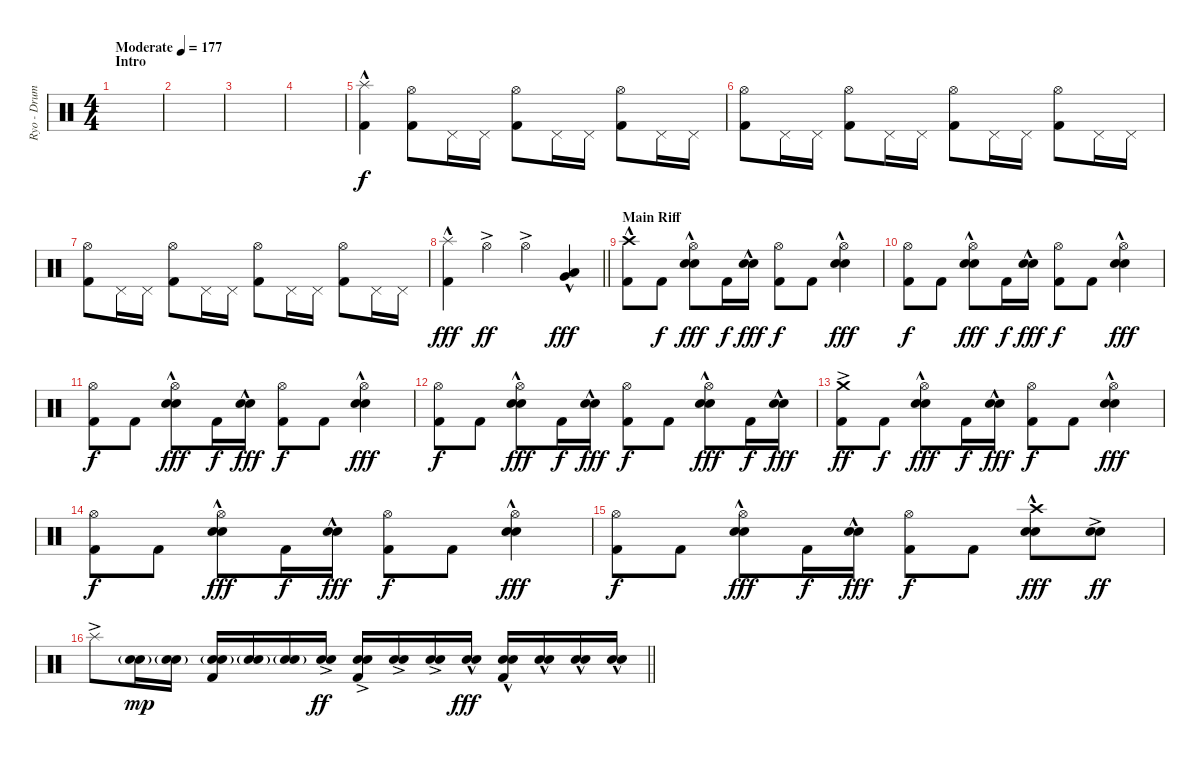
\track ("Ryo - Drums" "Ryo - Drum") {instrument percussion}
\staff {score}
\articulation defaults
\ts (4 4)
\section ("" "Intro")
\tempo (177 "Moderate")
\clef neutral
\ks c
|
|
|
|
("Splash (hit)"{hac} "Kick (hit) 2").4 ("Hi-Hat (open)" "Kick (hit) 2").8{dy f} "Pedal Hi-Hat (hit)".16 "Pedal Hi-Hat (hit)".16 ("Hi-Hat (open)" "Kick (hit) 2").8 "Pedal Hi-Hat (hit)".16 "Pedal Hi-Hat (hit)".16 ("Hi-Hat (open)" "Kick (hit) 2").8 "Pedal Hi-Hat (hit)".16 "Pedal Hi-Hat (hit)".16 |
("Hi-Hat (open)" "Kick (hit) 2").8 "Pedal Hi-Hat (hit)".16 "Pedal Hi-Hat (hit)".16 ("Hi-Hat (open)" "Kick (hit) 2").8 "Pedal Hi-Hat (hit)".16 "Pedal Hi-Hat (hit)".16 ("Hi-Hat (open)" "Kick (hit) 2").8 "Pedal Hi-Hat (hit)".16 "Pedal Hi-Hat (hit)".16 ("Hi-Hat (open)" "Kick (hit) 2").8 "Pedal Hi-Hat (hit)".16 "Pedal Hi-Hat (hit)".16 |
("Hi-Hat (open)" "Kick (hit) 2").8 "Pedal Hi-Hat (hit)".16 "Pedal Hi-Hat (hit)".16 ("Hi-Hat (open)" "Kick (hit) 2").8 "Pedal Hi-Hat (hit)".16 "Pedal Hi-Hat (hit)".16 ("Hi-Hat (open)" "Kick (hit) 2").8 "Pedal Hi-Hat (hit)".16 "Pedal Hi-Hat (hit)".16 ("Hi-Hat (open)" "Kick (hit) 2").8 "Pedal Hi-Hat (hit)".16 "Pedal Hi-Hat (hit)".16 |
\barLineRight lightlight
("Splash (hit)"{hac} "Kick (hit) 2").4{dy fff} "Hi-Hat (open)"{ac}.4{dy ff} "Hi-Hat (open)"{ac}.4 ("Low Tom (hit)"{hac} "Very Low Tom (hit)"{hac}).4{dy fff} |
\section ("" "Main Riff")
("Crash high (hit)"{hac} "Kick (hit) 2").8 "Kick (hit) 2".8{dy f} ("Hi-Hat (open)" "Electric Snare (hit)"{hac} "Snare (hit) 2"{hac}).8{dy fff} "Kick (hit) 2".16{dy f} ("Electric Snare (hit)"{hac} "Snare (hit) 2"{hac}).16{dy fff} ("Hi-Hat (open)" "Kick (hit) 2").8{dy f} "Kick (hit) 2".8 ("Hi-Hat (open)" "Electric Snare (hit)"{hac} "Snare (hit) 2"{hac}).4{dy fff} |
("Hi-Hat (open)" "Kick (hit) 2").8{dy f} "Kick (hit) 2".8 ("Hi-Hat (open)" "Electric Snare (hit)"{hac} "Snare (hit) 2"{hac}).8{dy fff} "Kick (hit) 2".16{dy f} ("Electric Snare (hit)"{hac} "Snare (hit) 2"{hac}).16{dy fff} ("Hi-Hat (open)" "Kick (hit) 2").8{dy f} "Kick (hit) 2".8 ("Hi-Hat (open)" "Electric Snare (hit)"{hac} "Snare (hit) 2"{hac}).4{dy fff} |
("Hi-Hat (open)" "Kick (hit) 2").8{dy f} "Kick (hit) 2".8 ("Hi-Hat (open)" "Electric Snare (hit)"{hac} "Snare (hit) 2"{hac}).8{dy fff} "Kick (hit) 2".16{dy f} ("Electric Snare (hit)"{hac} "Snare (hit) 2"{hac}).16{dy fff} ("Hi-Hat (open)" "Kick (hit) 2").8{dy f} "Kick (hit) 2".8 ("Hi-Hat (open)" "Electric Snare (hit)"{hac} "Snare (hit) 2"{hac}).4{dy fff} |
("Hi-Hat (open)" "Kick (hit) 2").8{dy f} "Kick (hit) 2".8 ("Hi-Hat (open)" "Electric Snare (hit)"{hac} "Snare (hit) 2"{hac}).8{dy fff} "Kick (hit) 2".16{dy f} ("Electric Snare (hit)"{hac} "Snare (hit) 2"{hac}).16{dy fff} ("Hi-Hat (open)" "Kick (hit) 2").8{dy f} "Kick (hit) 2".8 ("Hi-Hat (open)" "Electric Snare (hit)"{hac} "Snare (hit) 2"{hac}).8{dy fff} "Kick (hit) 2".16{dy f} ("Electric Snare (hit)"{hac} "Snare (hit) 2"{hac}).16{dy fff} |
("Crash medium (hit)"{ac} "Kick (hit) 2").8{dy ff} "Kick (hit) 2".8{dy f} ("Hi-Hat (open)" "Electric Snare (hit)"{hac} "Snare (hit) 2"{hac}).8{dy fff} "Kick (hit) 2".16{dy f} ("Electric Snare (hit)"{hac} "Snare (hit) 2"{hac}).16{dy fff} ("Hi-Hat (open)" "Kick (hit) 2").8{dy f} "Kick (hit) 2".8 ("Hi-Hat (open)" "Electric Snare (hit)"{hac} "Snare (hit) 2"{hac}).4{dy fff} |
("Hi-Hat (open)" "Kick (hit) 2").8{dy f} "Kick (hit) 2".8 ("Hi-Hat (open)" "Electric Snare (hit)"{hac} "Snare (hit) 2"{hac}).8{dy fff} "Kick (hit) 2".16{dy f} ("Electric Snare (hit)"{hac} "Snare (hit) 2"{hac}).16{dy fff} ("Hi-Hat (open)" "Kick (hit) 2").8{dy f} "Kick (hit) 2".8 ("Hi-Hat (open)" "Electric Snare (hit)"{hac} "Snare (hit) 2"{hac}).4{dy fff} |
("Hi-Hat (open)" "Kick (hit) 2").8{dy f} "Kick (hit) 2".8 ("Hi-Hat (open)" "Electric Snare (hit)"{hac} "Snare (hit) 2"{hac}).8{dy fff} "Kick (hit) 2".16{dy f} ("Electric Snare (hit)"{hac} "Snare (hit) 2"{hac}).16{dy fff} ("Hi-Hat (open)" "Kick (hit) 2").8{dy f} "Kick (hit) 2".8 ("Crash high (hit)" "Electric Snare (hit)"{hac} "Snare (hit) 2"{hac}).8{dy fff} ("Electric Snare (hit)"{ac} "Snare (hit) 2"{ac}).8{dy ff} |
\barLineRight lightlight "Splash (hit)"{ac}.8
("Electric Snare (hit)"{g} "Snare (hit) 2"{g}).16{dy mp} ("Electric Snare (hit)"{g} "Snare (hit) 2"{g}).16 ("Electric Snare (hit)"{g} "Snare (hit) 2"{g} "Kick (hit) 2").16 ("Electric Snare (hit)"{g} "Snare (hit) 2"{g}).16 ("Electric Snare (hit)"{g} "Snare (hit) 2"{g}).16 ("Electric Snare (hit)"{ac} "Snare (hit) 2"{ac}).16{dy ff} ("Electric Snare (hit)"{ac} "Snare (hit) 2"{ac} "Kick (hit) 2").16 ("Electric Snare (hit)"{ac} "Snare (hit) 2"{ac}).16 ("Electric Snare (hit)"{ac} "Snare (hit) 2"{ac}).16 ("Electric Snare (hit)"{hac} "Snare (hit) 2"{hac}).16{dy fff} ("Electric Snare (hit)"{hac} "Snare (hit) 2"{hac} "Kick (hit) 2").16 ("Electric Snare (hit)"{hac} "Snare (hit) 2"{hac}).16 ("Electric Snare (hit)"{hac} "Snare (hit) 2"{hac}).16 ("Electric Snare (hit)"{hac} "Snare (hit) 2"{hac}).16
